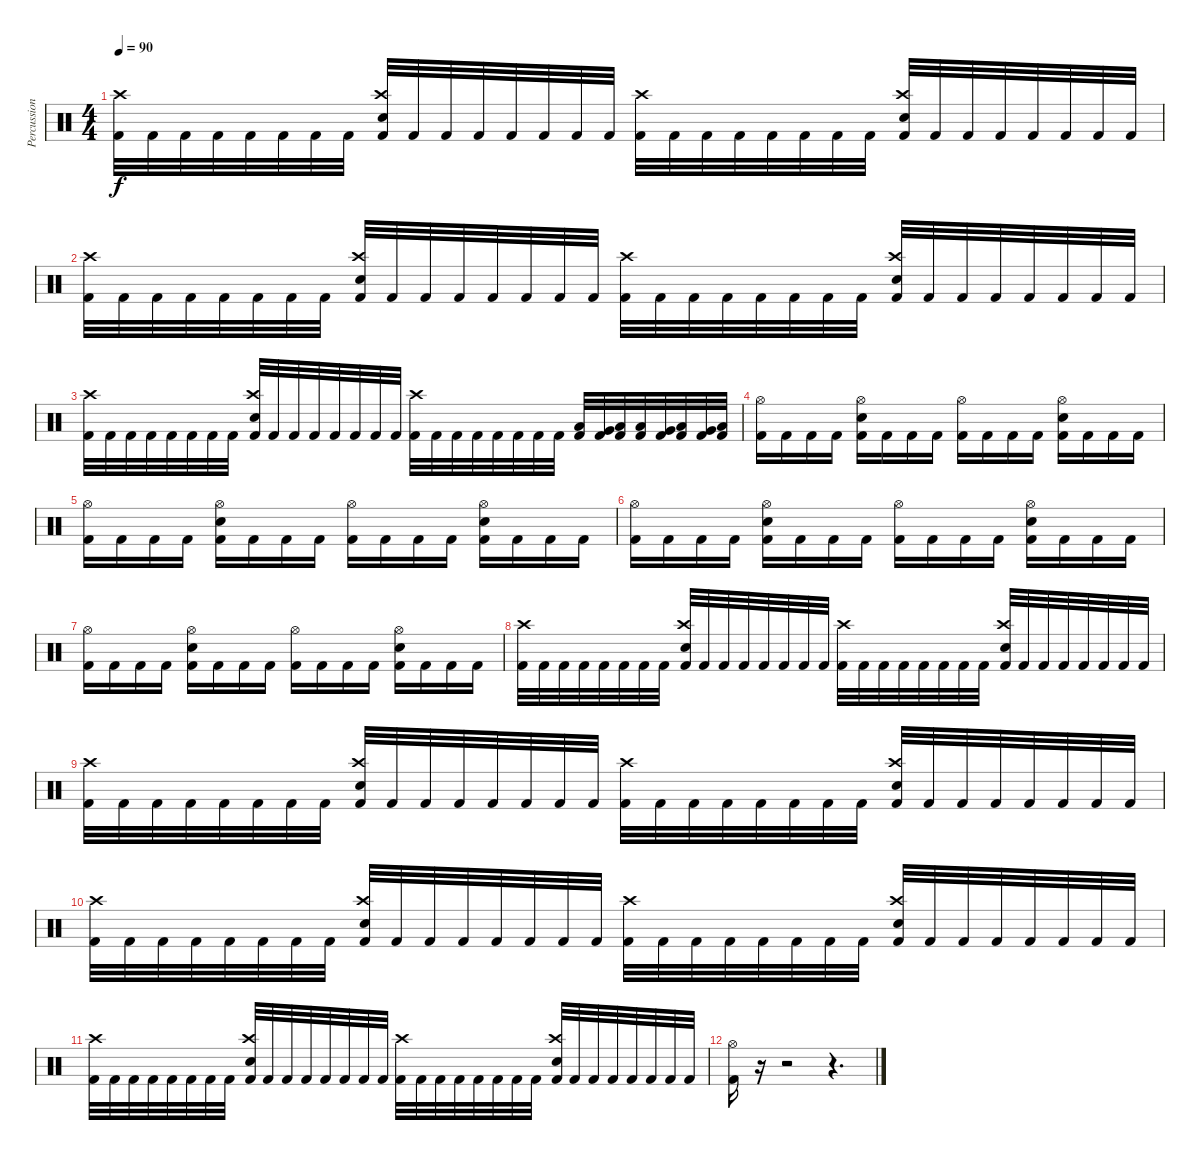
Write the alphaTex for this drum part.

\track ("Percussion" "Percussion") {instrument percussion}
\staff {score}
\articulation defaults
\ts (4 4)
\tempo 90
\clef neutral
\ks c
("Kick (hit) 2" "Crash high (hit)").32{dy f} "Kick (hit) 2".32 "Kick (hit) 2".32 "Kick (hit) 2".32 "Kick (hit) 2".32 "Kick (hit) 2".32 "Kick (hit) 2".32 "Kick (hit) 2".32 ("Kick (hit) 2" "Crash high (hit)" "Electric Snare (hit)").32 "Kick (hit) 2".32 "Kick (hit) 2".32 "Kick (hit) 2".32 "Kick (hit) 2".32 "Kick (hit) 2".32 "Kick (hit) 2".32 "Kick (hit) 2".32 ("Kick (hit) 2" "Crash high (hit)").32 "Kick (hit) 2".32 "Kick (hit) 2".32 "Kick (hit) 2".32 "Kick (hit) 2".32 "Kick (hit) 2".32 "Kick (hit) 2".32 "Kick (hit) 2".32 ("Kick (hit) 2" "Crash high (hit)" "Electric Snare (hit)").32 "Kick (hit) 2".32 "Kick (hit) 2".32 "Kick (hit) 2".32 "Kick (hit) 2".32 "Kick (hit) 2".32 "Kick (hit) 2".32 "Kick (hit) 2".32 |
("Kick (hit) 2" "Crash high (hit)").32 "Kick (hit) 2".32 "Kick (hit) 2".32 "Kick (hit) 2".32 "Kick (hit) 2".32 "Kick (hit) 2".32 "Kick (hit) 2".32 "Kick (hit) 2".32 ("Kick (hit) 2" "Crash high (hit)" "Electric Snare (hit)").32 "Kick (hit) 2".32 "Kick (hit) 2".32 "Kick (hit) 2".32 "Kick (hit) 2".32 "Kick (hit) 2".32 "Kick (hit) 2".32 "Kick (hit) 2".32 ("Kick (hit) 2" "Crash high (hit)").32 "Kick (hit) 2".32 "Kick (hit) 2".32 "Kick (hit) 2".32 "Kick (hit) 2".32 "Kick (hit) 2".32 "Kick (hit) 2".32 "Kick (hit) 2".32 ("Kick (hit) 2" "Crash high (hit)" "Electric Snare (hit)").32 "Kick (hit) 2".32 "Kick (hit) 2".32 "Kick (hit) 2".32 "Kick (hit) 2".32 "Kick (hit) 2".32 "Kick (hit) 2".32 "Kick (hit) 2".32 |
("Kick (hit) 2" "Crash high (hit)").32 "Kick (hit) 2".32 "Kick (hit) 2".32 "Kick (hit) 2".32 "Kick (hit) 2".32 "Kick (hit) 2".32 "Kick (hit) 2".32 "Kick (hit) 2".32 ("Kick (hit) 2" "Crash high (hit)" "Electric Snare (hit)").32 "Kick (hit) 2".32 "Kick (hit) 2".32 "Kick (hit) 2".32 "Kick (hit) 2".32 "Kick (hit) 2".32 "Kick (hit) 2".32 "Kick (hit) 2".32 ("Kick (hit) 2" "Crash high (hit)").32 "Kick (hit) 2".32 "Kick (hit) 2".32 "Kick (hit) 2".32 "Kick (hit) 2".32 "Kick (hit) 2".32 "Kick (hit) 2".32 "Kick (hit) 2".32 ("Kick (hit) 2" "Low Tom (hit)").32 ("Kick (hit) 2" "Very Low Tom (hit)").32 ("Kick (hit) 2" "Low Floor Tom (hit)").32 ("Kick (hit) 2" "Low Tom (hit)").32 ("Kick (hit) 2" "Very Low Tom (hit)").32 ("Kick (hit) 2" "Low Floor Tom (hit)").32 ("Kick (hit) 2" "Very Low Tom (hit)").32 ("Kick (hit) 2" "Low Floor Tom (hit)").32 |
("Kick (hit) 2" "Hi-Hat (open)").16 "Kick (hit) 2".16 "Kick (hit) 2".16 "Kick (hit) 2".16 ("Kick (hit) 2" "Hi-Hat (open)" "Electric Snare (hit)").16 "Kick (hit) 2".16 "Kick (hit) 2".16 "Kick (hit) 2".16 ("Kick (hit) 2" "Hi-Hat (open)").16 "Kick (hit) 2".16 "Kick (hit) 2".16 "Kick (hit) 2".16 ("Kick (hit) 2" "Hi-Hat (open)" "Electric Snare (hit)").16 "Kick (hit) 2".16 "Kick (hit) 2".16 "Kick (hit) 2".16 |
("Kick (hit) 2" "Hi-Hat (open)").16 "Kick (hit) 2".16 "Kick (hit) 2".16 "Kick (hit) 2".16 ("Kick (hit) 2" "Hi-Hat (open)" "Electric Snare (hit)").16 "Kick (hit) 2".16 "Kick (hit) 2".16 "Kick (hit) 2".16 ("Kick (hit) 2" "Hi-Hat (open)").16 "Kick (hit) 2".16 "Kick (hit) 2".16 "Kick (hit) 2".16 ("Kick (hit) 2" "Hi-Hat (open)" "Electric Snare (hit)").16 "Kick (hit) 2".16 "Kick (hit) 2".16 "Kick (hit) 2".16 |
("Kick (hit) 2" "Hi-Hat (open)").16 "Kick (hit) 2".16 "Kick (hit) 2".16 "Kick (hit) 2".16 ("Kick (hit) 2" "Hi-Hat (open)" "Electric Snare (hit)").16 "Kick (hit) 2".16 "Kick (hit) 2".16 "Kick (hit) 2".16 ("Kick (hit) 2" "Hi-Hat (open)").16 "Kick (hit) 2".16 "Kick (hit) 2".16 "Kick (hit) 2".16 ("Kick (hit) 2" "Hi-Hat (open)" "Electric Snare (hit)").16 "Kick (hit) 2".16 "Kick (hit) 2".16 "Kick (hit) 2".16 |
("Kick (hit) 2" "Hi-Hat (open)").16 "Kick (hit) 2".16 "Kick (hit) 2".16 "Kick (hit) 2".16 ("Kick (hit) 2" "Hi-Hat (open)" "Electric Snare (hit)").16 "Kick (hit) 2".16 "Kick (hit) 2".16 "Kick (hit) 2".16 ("Kick (hit) 2" "Hi-Hat (open)").16 "Kick (hit) 2".16 "Kick (hit) 2".16 "Kick (hit) 2".16 ("Kick (hit) 2" "Hi-Hat (open)" "Electric Snare (hit)").16 "Kick (hit) 2".16 "Kick (hit) 2".16 "Kick (hit) 2".16 |
("Kick (hit) 2" "Crash high (hit)").32 "Kick (hit) 2".32 "Kick (hit) 2".32 "Kick (hit) 2".32 "Kick (hit) 2".32 "Kick (hit) 2".32 "Kick (hit) 2".32 "Kick (hit) 2".32 ("Kick (hit) 2" "Crash high (hit)" "Electric Snare (hit)").32 "Kick (hit) 2".32 "Kick (hit) 2".32 "Kick (hit) 2".32 "Kick (hit) 2".32 "Kick (hit) 2".32 "Kick (hit) 2".32 "Kick (hit) 2".32 ("Kick (hit) 2" "Crash high (hit)").32 "Kick (hit) 2".32 "Kick (hit) 2".32 "Kick (hit) 2".32 "Kick (hit) 2".32 "Kick (hit) 2".32 "Kick (hit) 2".32 "Kick (hit) 2".32 ("Kick (hit) 2" "Crash high (hit)" "Electric Snare (hit)").32 "Kick (hit) 2".32 "Kick (hit) 2".32 "Kick (hit) 2".32 "Kick (hit) 2".32 "Kick (hit) 2".32 "Kick (hit) 2".32 "Kick (hit) 2".32 |
("Kick (hit) 2" "Crash high (hit)").32 "Kick (hit) 2".32 "Kick (hit) 2".32 "Kick (hit) 2".32 "Kick (hit) 2".32 "Kick (hit) 2".32 "Kick (hit) 2".32 "Kick (hit) 2".32 ("Kick (hit) 2" "Crash high (hit)" "Electric Snare (hit)").32 "Kick (hit) 2".32 "Kick (hit) 2".32 "Kick (hit) 2".32 "Kick (hit) 2".32 "Kick (hit) 2".32 "Kick (hit) 2".32 "Kick (hit) 2".32 ("Kick (hit) 2" "Crash high (hit)").32 "Kick (hit) 2".32 "Kick (hit) 2".32 "Kick (hit) 2".32 "Kick (hit) 2".32 "Kick (hit) 2".32 "Kick (hit) 2".32 "Kick (hit) 2".32 ("Kick (hit) 2" "Crash high (hit)" "Electric Snare (hit)").32 "Kick (hit) 2".32 "Kick (hit) 2".32 "Kick (hit) 2".32 "Kick (hit) 2".32 "Kick (hit) 2".32 "Kick (hit) 2".32 "Kick (hit) 2".32 |
("Kick (hit) 2" "Crash high (hit)").32 "Kick (hit) 2".32 "Kick (hit) 2".32 "Kick (hit) 2".32 "Kick (hit) 2".32 "Kick (hit) 2".32 "Kick (hit) 2".32 "Kick (hit) 2".32 ("Kick (hit) 2" "Crash high (hit)" "Electric Snare (hit)").32 "Kick (hit) 2".32 "Kick (hit) 2".32 "Kick (hit) 2".32 "Kick (hit) 2".32 "Kick (hit) 2".32 "Kick (hit) 2".32 "Kick (hit) 2".32 ("Kick (hit) 2" "Crash high (hit)").32 "Kick (hit) 2".32 "Kick (hit) 2".32 "Kick (hit) 2".32 "Kick (hit) 2".32 "Kick (hit) 2".32 "Kick (hit) 2".32 "Kick (hit) 2".32 ("Kick (hit) 2" "Crash high (hit)" "Electric Snare (hit)").32 "Kick (hit) 2".32 "Kick (hit) 2".32 "Kick (hit) 2".32 "Kick (hit) 2".32 "Kick (hit) 2".32 "Kick (hit) 2".32 "Kick (hit) 2".32 |
("Kick (hit) 2" "Crash high (hit)").32 "Kick (hit) 2".32 "Kick (hit) 2".32 "Kick (hit) 2".32 "Kick (hit) 2".32 "Kick (hit) 2".32 "Kick (hit) 2".32 "Kick (hit) 2".32 ("Kick (hit) 2" "Crash high (hit)" "Electric Snare (hit)").32 "Kick (hit) 2".32 "Kick (hit) 2".32 "Kick (hit) 2".32 "Kick (hit) 2".32 "Kick (hit) 2".32 "Kick (hit) 2".32 "Kick (hit) 2".32 ("Kick (hit) 2" "Crash high (hit)").32 "Kick (hit) 2".32 "Kick (hit) 2".32 "Kick (hit) 2".32 "Kick (hit) 2".32 "Kick (hit) 2".32 "Kick (hit) 2".32 "Kick (hit) 2".32 ("Kick (hit) 2" "Crash high (hit)" "Electric Snare (hit)").32 "Kick (hit) 2".32 "Kick (hit) 2".32 "Kick (hit) 2".32 "Kick (hit) 2".32 "Kick (hit) 2".32 "Kick (hit) 2".32 "Kick (hit) 2".32 |
("Kick (hit) 2" "Hi-Hat (open)").16 r.16 r.2 r.4{d}
